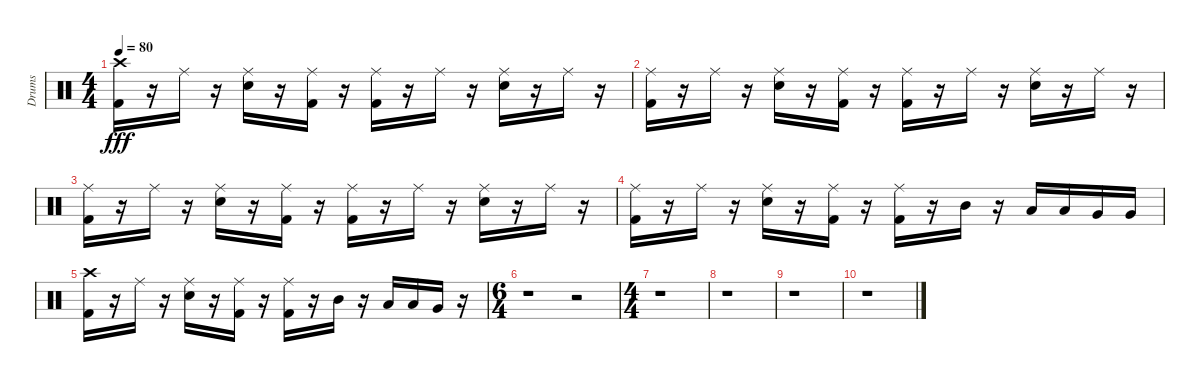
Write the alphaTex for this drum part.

\track ("Drums" "Drums") {instrument percussion}
\staff {score}
\articulation defaults
\ts (4 4)
\tempo 80
\clef neutral
\ks c
("Kick (hit) 2" "Crash high (hit)").16{dy fff} r.16 "Ride (middle)".16 r.16 ("Electric Snare (hit)" "Ride (middle)").16 r.16 ("Kick (hit) 2" "Ride (middle)").16 r.16 ("Kick (hit) 2" "Ride (middle)").16 r.16 "Ride (middle)".16 r.16 ("Electric Snare (hit)" "Ride (middle)").16 r.16 "Ride (middle)".16 r.16 |
("Kick (hit) 2" "Ride (middle)").16 r.16 "Ride (middle)".16 r.16 ("Electric Snare (hit)" "Ride (middle)").16 r.16 ("Kick (hit) 2" "Ride (middle)").16 r.16 ("Kick (hit) 2" "Ride (middle)").16 r.16 "Ride (middle)".16 r.16 ("Electric Snare (hit)" "Ride (middle)").16 r.16 "Ride (middle)".16 r.16 |
("Kick (hit) 2" "Ride (middle)").16 r.16 "Ride (middle)".16 r.16 ("Electric Snare (hit)" "Ride (middle)").16 r.16 ("Kick (hit) 2" "Ride (middle)").16 r.16 ("Kick (hit) 2" "Ride (middle)").16 r.16 "Ride (middle)".16 r.16 ("Electric Snare (hit)" "Ride (middle)").16 r.16 "Ride (middle)".16 r.16 |
("Kick (hit) 2" "Ride (middle)").16 r.16 "Ride (middle)".16 r.16 ("Electric Snare (hit)" "Ride (middle)").16 r.16 ("Kick (hit) 2" "Ride (middle)").16 r.16 ("Kick (hit) 2" "Ride (middle)").16 r.16 "Mid Tom (hit)".16 r.16 "Low Tom (hit)".16 "Low Tom (hit)".16 "Very Low Tom (hit)".16 "Very Low Tom (hit)".16 |
("Crash high (hit)" "Kick (hit) 2").16 r.16 "Ride (middle)".16 r.16 ("Electric Snare (hit)" "Ride (middle)").16 r.16 ("Kick (hit) 2" "Ride (middle)").16 r.16 ("Kick (hit) 2" "Ride (middle)").16 r.16 "Mid Tom (hit)".16 r.16 "Low Tom (hit)".16 "Low Tom (hit)".16 "Very Low Tom (hit)".16 r.16 |
\ts (6 4)
r.1 r.2 |
\ts (4 4)
r.1 |
r.1 |
r.1 |
r.1
